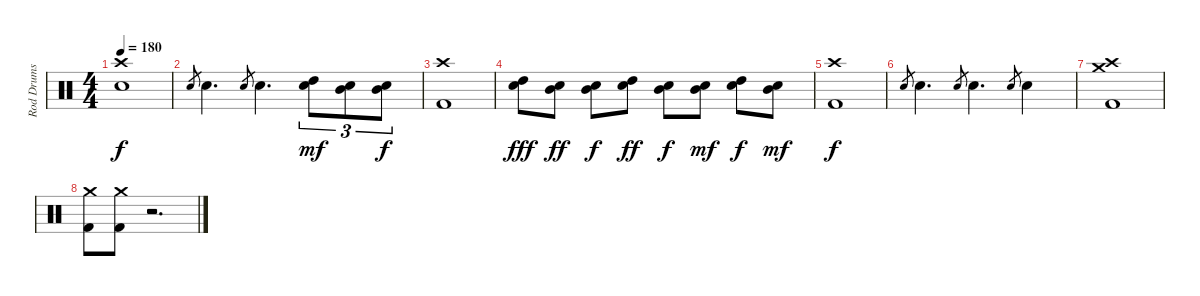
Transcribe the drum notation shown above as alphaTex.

\track ("Rod Drums" "Rod Drums") {instrument percussion}
\staff {score}
\articulation defaults
\ts (4 4)
\tempo 180
\clef neutral
\ks c
("Crash high (hit)" "Snare (hit) 2").1{dy f} |
"Snare (hit) 2".8{gr} "Snare (hit) 2".4{d} "Snare (hit) 2".8{gr} "Snare (hit) 2".4{d} ("High Tom (hit)" "Snare (hit) 2").8{tu (3 2) dy mf} ("Mid Tom (hit)" "Snare (hit) 2").8{tu (3 2)} ("Mid Tom (hit)" "Snare (hit) 2").8{tu (3 2) dy f} |
("Crash high (hit)" "Kick (hit) 2").1 |
("Snare (hit) 2" "High Tom (hit)").8{dy fff} ("Snare (hit) 2" "Mid Tom (hit)").8{dy ff} ("Snare (hit) 2" "Mid Tom (hit)").8{dy f} ("Snare (hit) 2" "High Tom (hit)").8{dy ff} ("Snare (hit) 2" "Mid Tom (hit)").8{dy f} ("Snare (hit) 2" "Mid Tom (hit)").8{dy mf} ("Snare (hit) 2" "High Tom (hit)").8{dy f} ("Snare (hit) 2" "Mid Tom (hit)").8{dy mf} |
("Crash high (hit)" "Kick (hit) 2").1{dy f} |
"Snare (hit) 2".8{gr} "Snare (hit) 2".4{d} "Snare (hit) 2".8{gr} "Snare (hit) 2".4{d} "Snare (hit) 2".8{gr} "Snare (hit) 2".4 |
("Crash high (hit)" "Crash medium (hit)" "Kick (hit) 2").1 |
("Crash medium (hit)" "Kick (hit) 2").8 ("Crash medium (hit)" "Kick (hit) 2").8 r.2{d}
